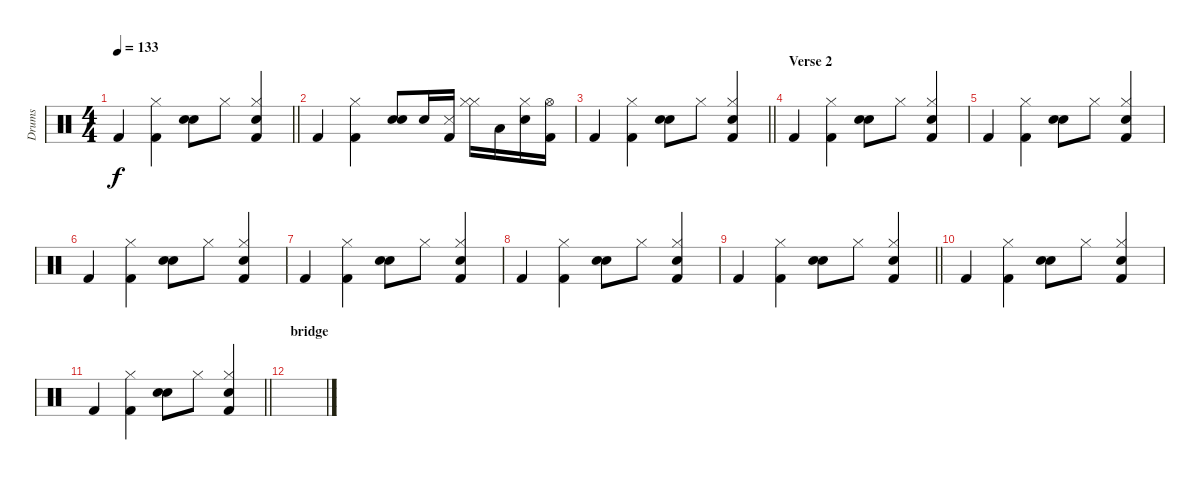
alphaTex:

\track ("Drums" "Drums") {instrument percussion}
\staff {score}
\articulation defaults
\ts (4 4)
\tempo 133
\clef neutral
\barLineRight lightlight
\ks c "Kick (hit) 2".4{dy f}
("Hi-Hat (closed)" "Kick (hit) 2").4 ("Snare (hit) 2" "Electric Snare (hit)").8 "Hi-Hat (closed)".8 ("Hi-Hat (closed)" "Snare (hit) 2" "Kick (hit) 2").4 |
"Kick (hit) 2".4 ("Hi-Hat (closed)" "Kick (hit) 2").4 ("Snare (hit) 2" "Electric Snare (hit)").8 "Snare (hit) 2".16 ("Snare (side stick) 3" "Kick (hit) 2").16 ("Hi-Hat (closed)" "Hi-Hat (closed)").16 "Low Tom (hit)".16 ("Hand Clap (hit)" "Hi-Hat (closed)").16 ("Hi-Hat (open)" "Kick (hit) 2").16 |
\barLineRight lightlight "Kick (hit) 2".4
("Hi-Hat (closed)" "Kick (hit) 2").4 ("Snare (hit) 2" "Electric Snare (hit)").8 "Hi-Hat (closed)".8 ("Hi-Hat (closed)" "Snare (hit) 2" "Kick (hit) 2").4 |
\section ("" "Verse 2")
"Kick (hit) 2".4 ("Hi-Hat (closed)" "Kick (hit) 2").4 ("Snare (hit) 2" "Electric Snare (hit)").8 "Hi-Hat (closed)".8 ("Hi-Hat (closed)" "Snare (hit) 2" "Kick (hit) 2").4 |
"Kick (hit) 2".4 ("Hi-Hat (closed)" "Kick (hit) 2").4 ("Snare (hit) 2" "Electric Snare (hit)").8 "Hi-Hat (closed)".8 ("Hi-Hat (closed)" "Snare (hit) 2" "Kick (hit) 2").4 |
"Kick (hit) 2".4 ("Hi-Hat (closed)" "Kick (hit) 2").4 ("Snare (hit) 2" "Electric Snare (hit)").8 "Hi-Hat (closed)".8 ("Hi-Hat (closed)" "Snare (hit) 2" "Kick (hit) 2").4 |
"Kick (hit) 2".4 ("Hi-Hat (closed)" "Kick (hit) 2").4 ("Snare (hit) 2" "Electric Snare (hit)").8 "Hi-Hat (closed)".8 ("Hi-Hat (closed)" "Snare (hit) 2" "Kick (hit) 2").4 |
"Kick (hit) 2".4 ("Hi-Hat (closed)" "Kick (hit) 2").4 ("Snare (hit) 2" "Electric Snare (hit)").8 "Hi-Hat (closed)".8 ("Hi-Hat (closed)" "Snare (hit) 2" "Kick (hit) 2").4 |
\barLineRight lightlight "Kick (hit) 2".4
("Hi-Hat (closed)" "Kick (hit) 2").4 ("Snare (hit) 2" "Electric Snare (hit)").8 "Hi-Hat (closed)".8 ("Hi-Hat (closed)" "Snare (hit) 2" "Kick (hit) 2").4 |
"Kick (hit) 2".4 ("Hi-Hat (closed)" "Kick (hit) 2").4 ("Snare (hit) 2" "Electric Snare (hit)").8 "Hi-Hat (closed)".8 ("Hi-Hat (closed)" "Snare (hit) 2" "Kick (hit) 2").4 |
\barLineRight lightlight "Kick (hit) 2".4
("Hi-Hat (closed)" "Kick (hit) 2").4 ("Snare (hit) 2" "Electric Snare (hit)").8 "Hi-Hat (closed)".8 ("Hi-Hat (closed)" "Snare (hit) 2" "Kick (hit) 2").4 |
\section ("" "bridge")
